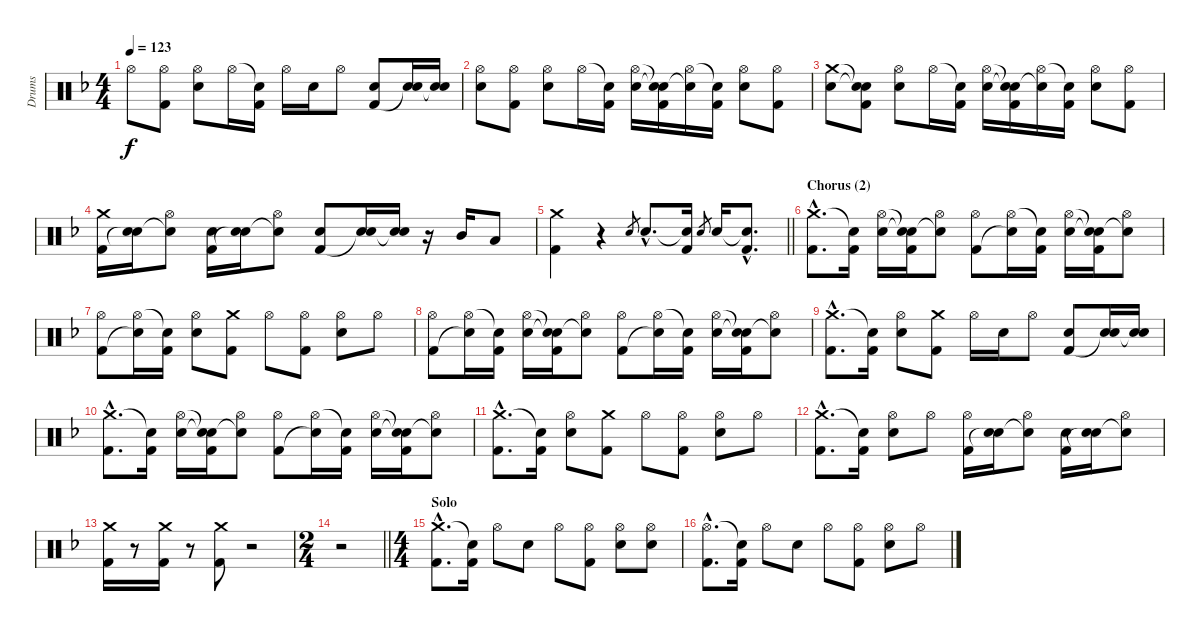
\track ("Drums" "Drums") {instrument percussion}
\staff {score}
\articulation defaults
\ts (4 4)
\tempo 123
\clef neutral
\ks dminor "Hi-Hat (open)".8{dy f}
("Hi-Hat (open)" "Kick (hit) 2").8 ("Hi-Hat (open)" "Electric Snare (hit)").8 "Hi-Hat (open)".16 ("Snare (hit)"{t} "Kick (hit) 2").16 "Hi-Hat (open)".16 "Electric Snare (hit)".16 "Hi-Hat (open)".8 ("Electric Snare (hit)" "Kick (hit) 2").8 ("Electric Snare (hit)" "Snare (hit)"{t}).16 ("Electric Snare (hit)" "Snare (hit)"{t}).16 |
("Hi-Hat (open)" "Electric Snare (hit)").8 ("Hi-Hat (open)" "Kick (hit) 2").8 ("Hi-Hat (open)" "Electric Snare (hit)").8 "Hi-Hat (open)".16 ("Snare (hit)"{t} "Kick (hit) 2").16 ("Hi-Hat (open)" "Electric Snare (hit)").16 ("Snare (hit)"{t} "Snare (hit)"{t} "Kick (hit) 2").16 ("Hi-Hat (open)" "Snare (hit)"{t}).16 ("Snare (hit)"{t} "Kick (hit) 2").16 ("Hi-Hat (open)" "Electric Snare (hit)").8 ("Hi-Hat (open)" "Kick (hit) 2").8 |
("Crash medium (hit)" "Electric Snare (hit)").8 ("Snare (hit)"{t} "Snare (hit)"{t} "Kick (hit) 2").8 ("Hi-Hat (open)" "Electric Snare (hit)").8 "Hi-Hat (open)".16 ("Snare (hit)"{t} "Kick (hit) 2").16 ("Hi-Hat (open)" "Electric Snare (hit)").16 ("Snare (hit)"{t} "Snare (hit)"{t} "Kick (hit) 2").16 ("Hi-Hat (open)" "Snare (hit)"{t}).16 ("Snare (hit)"{t} "Kick (hit) 2").16 ("Hi-Hat (open)" "Electric Snare (hit)").8 ("Hi-Hat (open)" "Kick (hit) 2").8 |
("Crash medium (hit)" "Kick (hit) 2").16 ("Electric Snare (hit)" "Snare (hit)"{t}).16 ("Hi-Hat (open)" "Snare (hit)"{t}).8 ("Electric Snare (hit)" "Kick (hit) 2").16 ("Electric Snare (hit)" "Snare (hit)"{t}).16 ("Hi-Hat (open)" "Snare (hit)"{t}).8 ("Electric Snare (hit)" "Kick (hit) 2").8 ("Electric Snare (hit)" "Snare (hit)"{t}).16 ("Electric Snare (hit)" "Snare (hit)"{t}).16 r.16 "Mid Tom (hit)".16 "Low Floor Tom (hit)".8 |
\barLineRight lightlight
("Crash medium (hit)" "Kick (hit) 2").4 r.4 "Electric Snare (hit)".8{gr} "Electric Snare (hit)"{hac}.8{d} ("Snare (hit)"{t} "Kick (hit) 2").16 "Electric Snare (hit)".8{gr} "Electric Snare (hit)".16 ("Snare (hit)"{hac t} "Kick (hit) 2"{hac}).8{d} |
\section ("" "Chorus (2)")
("Crash medium (hit)"{hac} "Kick (hit) 2"{hac}).8{d} ("Snare (hit)"{t} "Kick (hit) 2").16 ("Hi-Hat (open)" "Electric Snare (hit)").16 ("Snare (hit)"{t} "Snare (hit)"{t} "Kick (hit) 2").16 ("Hi-Hat (open)" "Snare (hit)"{t}).8 ("Hi-Hat (open)" "Kick (hit) 2").8 ("Hi-Hat (open)" "Snare (hit)"{t}).16 ("Snare (hit)"{t} "Kick (hit) 2").16 ("Hi-Hat (open)" "Electric Snare (hit)").16 ("Snare (hit)"{t} "Snare (hit)"{t} "Kick (hit) 2").16 ("Hi-Hat (open)" "Snare (hit)"{t}).8 |
("Hi-Hat (open)" "Kick (hit) 2").8 ("Hi-Hat (open)" "Snare (hit)"{t}).16 ("Snare (hit)"{t} "Kick (hit) 2").16 ("Hi-Hat (open)" "Electric Snare (hit)").8 ("Crash medium (hit)" "Kick (hit) 2").8 "Hi-Hat (open)".8 ("Hi-Hat (open)" "Kick (hit) 2").8 ("Hi-Hat (open)" "Electric Snare (hit)").8 "Hi-Hat (open)".8 |
("Hi-Hat (open)" "Kick (hit) 2").8 ("Hi-Hat (open)" "Snare (hit)"{t}).16 ("Snare (hit)"{t} "Kick (hit) 2").16 ("Hi-Hat (open)" "Electric Snare (hit)").16 ("Snare (hit)"{t} "Snare (hit)"{t} "Kick (hit) 2").16 ("Hi-Hat (open)" "Snare (hit)"{t}).8 ("Hi-Hat (open)" "Kick (hit) 2").8 ("Hi-Hat (open)" "Snare (hit)"{t}).16 ("Snare (hit)"{t} "Kick (hit) 2").16 ("Hi-Hat (open)" "Electric Snare (hit)").16 ("Snare (hit)"{t} "Snare (hit)"{t} "Kick (hit) 2").16 ("Hi-Hat (open)" "Snare (hit)"{t}).8 |
("Crash medium (hit)"{hac} "Kick (hit) 2"{hac}).8{d} ("Snare (hit)"{t} "Kick (hit) 2").16 ("Hi-Hat (open)" "Electric Snare (hit)").8 ("Crash medium (hit)" "Kick (hit) 2").8 "Hi-Hat (open)".16 "Electric Snare (hit)".16 "Hi-Hat (open)".8 ("Electric Snare (hit)" "Kick (hit) 2").8 ("Electric Snare (hit)" "Snare (hit)"{t}).16 ("Electric Snare (hit)" "Snare (hit)"{t}).16 |
("Crash medium (hit)"{hac} "Kick (hit) 2"{hac}).8{d} ("Snare (hit)"{t} "Kick (hit) 2").16 ("Hi-Hat (open)" "Electric Snare (hit)").16 ("Snare (hit)"{t} "Snare (hit)"{t} "Kick (hit) 2").16 ("Hi-Hat (open)" "Snare (hit)"{t}).8 ("Hi-Hat (open)" "Kick (hit) 2").8 ("Hi-Hat (open)" "Snare (hit)"{t}).16 ("Snare (hit)"{t} "Kick (hit) 2").16 ("Hi-Hat (open)" "Electric Snare (hit)").16 ("Snare (hit)"{t} "Snare (hit)"{t} "Kick (hit) 2").16 ("Hi-Hat (open)" "Snare (hit)"{t}).8 |
("Crash medium (hit)"{hac} "Kick (hit) 2"{hac}).8{d} ("Snare (hit)"{t} "Kick (hit) 2").16 ("Hi-Hat (open)" "Electric Snare (hit)").8 ("Crash medium (hit)" "Kick (hit) 2").8 "Hi-Hat (open)".8 ("Hi-Hat (open)" "Kick (hit) 2").8 ("Hi-Hat (open)" "Electric Snare (hit)").8 "Hi-Hat (open)".8 |
("Crash medium (hit)"{hac} "Kick (hit) 2"{hac}).8{d} ("Snare (hit)"{t} "Kick (hit) 2").16 ("Hi-Hat (open)" "Electric Snare (hit)").8 "Hi-Hat (open)".8 ("Hi-Hat (open)" "Kick (hit) 2").16 ("Electric Snare (hit)" "Snare (hit)"{t}).16 ("Hi-Hat (open)" "Snare (hit)"{t}).8 ("Electric Snare (hit)" "Kick (hit) 2").16 ("Electric Snare (hit)" "Snare (hit)"{t}).16 ("Hi-Hat (open)" "Snare (hit)"{t}).8 |
("Crash medium (hit)" "Kick (hit) 2").16 r.8 ("Crash medium (hit)" "Kick (hit) 2").16 r.8 ("Crash medium (hit)" "Kick (hit) 2").8 r.2 |
\ts (2 4)
\barLineRight lightlight
r.2 |
\ts (4 4)
\section ("" "Solo")
("Crash medium (hit)"{hac} "Kick (hit) 2"{hac}).8{d} ("Snare (hit)"{t} "Kick (hit) 2").16 "Hi-Hat (open)".8 "Electric Snare (hit)".8 "Hi-Hat (open)".8 ("Hi-Hat (open)" "Kick (hit) 2").8 ("Hi-Hat (open)" "Electric Snare (hit)").8 ("Hi-Hat (open)" "Electric Snare (hit)").8 |
("Hi-Hat (open)"{hac} "Kick (hit) 2"{hac}).8{d} ("Snare (hit)"{t} "Kick (hit) 2").16 "Hi-Hat (open)".8 "Electric Snare (hit)".8 "Hi-Hat (open)".8 ("Hi-Hat (open)" "Kick (hit) 2").8 ("Hi-Hat (open)" "Electric Snare (hit)").8 "Hi-Hat (open)".8
